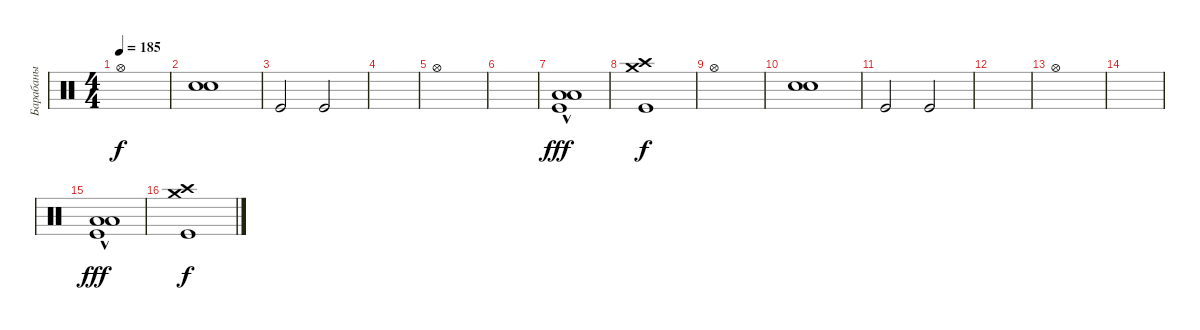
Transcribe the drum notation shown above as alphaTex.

\track ("Барабаны" "Барабаны") {instrument percussion}
\staff {score}
\articulation defaults
\ts (4 4)
\tempo 185
\clef neutral
\ks c "Hi-Hat (open)".1{dy f}
|
("Electric Snare (hit)" "Electric Snare (hit)").1{bu 60} |
"Kick (hit)".2 "Kick (hit)".2 |
|
"Hi-Hat (open)".1 |
|
("Low Floor Tom (hit)"{hac} "Low Floor Tom (hit)"{hac} "Kick (hit)").1{dy fff} |
("Crash medium (hit)" "Crash high (hit)" "Kick (hit)").1{dy f} |
"Hi-Hat (open)".1 |
("Electric Snare (hit)" "Electric Snare (hit)").1{bu 120} |
"Kick (hit)".2 "Kick (hit)".2 |
|
"Hi-Hat (open)".1 |
|
("Low Floor Tom (hit)"{hac} "Low Floor Tom (hit)"{hac} "Kick (hit)").1{dy fff} |
("Crash medium (hit)" "Crash high (hit)" "Kick (hit)").1{dy f volume 11}
